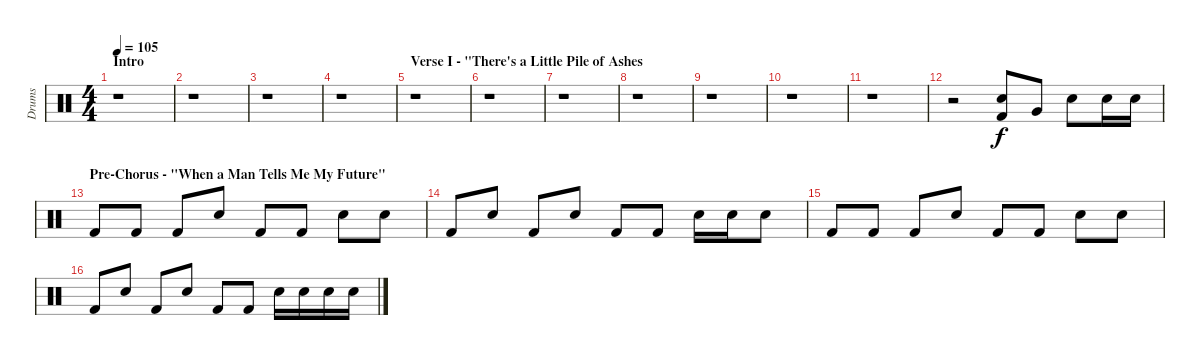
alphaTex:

\track ("Drums" "Drums") {instrument percussion}
\staff {score}
\articulation defaults
\ts (4 4)
\section ("" "Intro")
\tempo 105
\clef neutral
\ks c
r.1{dy f} |
r.1 |
r.1 |
r.1 |
\section ("" "Verse I - \"There's a Little Pile of Ashes")
r.1 |
r.1 |
r.1 |
r.1 |
r.1 |
r.1 |
r.1 |
r.2 ("Snare (hit) 2" "Kick (hit) 2").8 "Very Low Tom (hit)".8 "Snare (hit) 2".8 "Snare (hit) 2".16 "Snare (hit) 2".16 |
\section ("" "Pre-Chorus - \"When a Man Tells Me My Future\"")
"Kick (hit) 2".8 "Kick (hit) 2".8 "Kick (hit) 2".8 "Snare (hit) 2".8 "Kick (hit) 2".8 "Kick (hit) 2".8 "Snare (hit) 2".8 "Snare (hit) 2".8 |
"Kick (hit) 2".8 "Snare (hit) 2".8 "Kick (hit) 2".8 "Snare (hit) 2".8 "Kick (hit) 2".8 "Kick (hit) 2".8 "Snare (hit) 2".16 "Snare (hit) 2".16 "Snare (hit) 2".8 |
"Kick (hit) 2".8 "Kick (hit) 2".8 "Kick (hit) 2".8 "Snare (hit) 2".8 "Kick (hit) 2".8 "Kick (hit) 2".8 "Snare (hit) 2".8 "Snare (hit) 2".8 |
"Kick (hit) 2".8 "Snare (hit) 2".8 "Kick (hit) 2".8 "Snare (hit) 2".8 "Kick (hit) 2".8 "Kick (hit) 2".8 "Snare (hit) 2".16 "Snare (hit) 2".16 "Snare (hit) 2".16 "Snare (hit) 2".16
